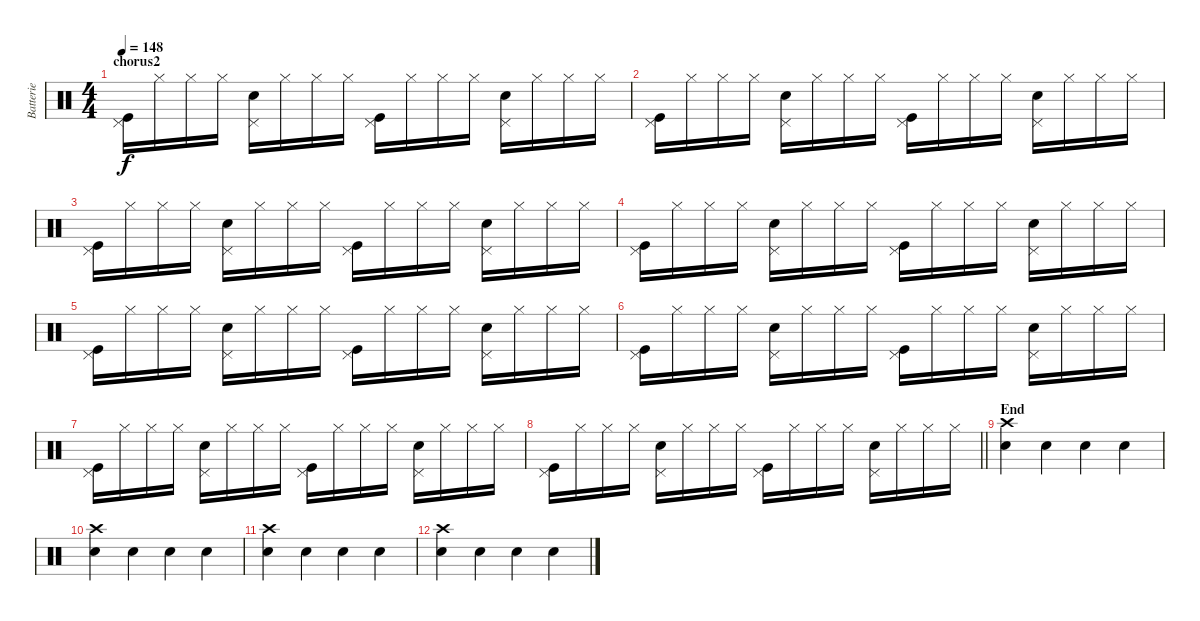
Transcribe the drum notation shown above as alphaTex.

\track ("Batterie" "Batterie") {instrument percussion}
\staff {score}
\articulation defaults
\ts (4 4)
\section ("" "chorus2")
\tempo 148
\clef neutral
\ks c
("Pedal Hi-Hat (hit)" "Kick (hit)").16{dy f} "Hi-Hat (closed)".16 "Hi-Hat (closed)".16 "Hi-Hat (closed)".16 ("Pedal Hi-Hat (hit)" "Electric Snare (hit)").16 "Hi-Hat (closed)".16 "Hi-Hat (closed)".16 "Hi-Hat (closed)".16 ("Pedal Hi-Hat (hit)" "Kick (hit)").16 "Hi-Hat (closed)".16 "Hi-Hat (closed)".16 "Hi-Hat (closed)".16 ("Pedal Hi-Hat (hit)" "Electric Snare (hit)").16 "Hi-Hat (closed)".16 "Hi-Hat (closed)".16 "Hi-Hat (closed)".16 |
("Pedal Hi-Hat (hit)" "Kick (hit)").16 "Hi-Hat (closed)".16 "Hi-Hat (closed)".16 "Hi-Hat (closed)".16 ("Pedal Hi-Hat (hit)" "Electric Snare (hit)").16 "Hi-Hat (closed)".16 "Hi-Hat (closed)".16 "Hi-Hat (closed)".16 ("Pedal Hi-Hat (hit)" "Kick (hit)").16 "Hi-Hat (closed)".16 "Hi-Hat (closed)".16 "Hi-Hat (closed)".16 ("Pedal Hi-Hat (hit)" "Electric Snare (hit)").16 "Hi-Hat (closed)".16 "Hi-Hat (closed)".16 "Hi-Hat (closed)".16 |
("Pedal Hi-Hat (hit)" "Kick (hit)").16 "Hi-Hat (closed)".16 "Hi-Hat (closed)".16 "Hi-Hat (closed)".16 ("Pedal Hi-Hat (hit)" "Electric Snare (hit)").16 "Hi-Hat (closed)".16 "Hi-Hat (closed)".16 "Hi-Hat (closed)".16 ("Pedal Hi-Hat (hit)" "Kick (hit)").16 "Hi-Hat (closed)".16 "Hi-Hat (closed)".16 "Hi-Hat (closed)".16 ("Pedal Hi-Hat (hit)" "Electric Snare (hit)").16 "Hi-Hat (closed)".16 "Hi-Hat (closed)".16 "Hi-Hat (closed)".16 |
("Pedal Hi-Hat (hit)" "Kick (hit)").16 "Hi-Hat (closed)".16 "Hi-Hat (closed)".16 "Hi-Hat (closed)".16 ("Pedal Hi-Hat (hit)" "Electric Snare (hit)").16 "Hi-Hat (closed)".16 "Hi-Hat (closed)".16 "Hi-Hat (closed)".16 ("Pedal Hi-Hat (hit)" "Kick (hit)").16 "Hi-Hat (closed)".16 "Hi-Hat (closed)".16 "Hi-Hat (closed)".16 ("Pedal Hi-Hat (hit)" "Electric Snare (hit)").16 "Hi-Hat (closed)".16 "Hi-Hat (closed)".16 "Hi-Hat (closed)".16 |
("Pedal Hi-Hat (hit)" "Kick (hit)").16 "Hi-Hat (closed)".16 "Hi-Hat (closed)".16 "Hi-Hat (closed)".16 ("Pedal Hi-Hat (hit)" "Electric Snare (hit)").16 "Hi-Hat (closed)".16 "Hi-Hat (closed)".16 "Hi-Hat (closed)".16 ("Pedal Hi-Hat (hit)" "Kick (hit)").16 "Hi-Hat (closed)".16 "Hi-Hat (closed)".16 "Hi-Hat (closed)".16 ("Pedal Hi-Hat (hit)" "Electric Snare (hit)").16 "Hi-Hat (closed)".16 "Hi-Hat (closed)".16 "Hi-Hat (closed)".16 |
("Pedal Hi-Hat (hit)" "Kick (hit)").16 "Hi-Hat (closed)".16 "Hi-Hat (closed)".16 "Hi-Hat (closed)".16 ("Pedal Hi-Hat (hit)" "Electric Snare (hit)").16 "Hi-Hat (closed)".16 "Hi-Hat (closed)".16 "Hi-Hat (closed)".16 ("Pedal Hi-Hat (hit)" "Kick (hit)").16 "Hi-Hat (closed)".16 "Hi-Hat (closed)".16 "Hi-Hat (closed)".16 ("Pedal Hi-Hat (hit)" "Electric Snare (hit)").16 "Hi-Hat (closed)".16 "Hi-Hat (closed)".16 "Hi-Hat (closed)".16 |
("Pedal Hi-Hat (hit)" "Kick (hit)").16 "Hi-Hat (closed)".16 "Hi-Hat (closed)".16 "Hi-Hat (closed)".16 ("Pedal Hi-Hat (hit)" "Electric Snare (hit)").16 "Hi-Hat (closed)".16 "Hi-Hat (closed)".16 "Hi-Hat (closed)".16 ("Pedal Hi-Hat (hit)" "Kick (hit)").16 "Hi-Hat (closed)".16 "Hi-Hat (closed)".16 "Hi-Hat (closed)".16 ("Pedal Hi-Hat (hit)" "Electric Snare (hit)").16 "Hi-Hat (closed)".16 "Hi-Hat (closed)".16 "Hi-Hat (closed)".16 |
\barLineRight lightlight
("Pedal Hi-Hat (hit)" "Kick (hit)").16 "Hi-Hat (closed)".16 "Hi-Hat (closed)".16 "Hi-Hat (closed)".16 ("Pedal Hi-Hat (hit)" "Electric Snare (hit)").16 "Hi-Hat (closed)".16 "Hi-Hat (closed)".16 "Hi-Hat (closed)".16 ("Pedal Hi-Hat (hit)" "Kick (hit)").16 "Hi-Hat (closed)".16 "Hi-Hat (closed)".16 "Hi-Hat (closed)".16 ("Pedal Hi-Hat (hit)" "Electric Snare (hit)").16 "Hi-Hat (closed)".16 "Hi-Hat (closed)".16 "Hi-Hat (closed)".16 |
\section ("" "End")
("Crash high (hit)" "Electric Snare (hit)").4 "Electric Snare (hit)".4 "Electric Snare (hit)".4 "Electric Snare (hit)".4 |
("Crash high (hit)" "Electric Snare (hit)").4 "Electric Snare (hit)".4 "Electric Snare (hit)".4 "Electric Snare (hit)".4 |
("Crash high (hit)" "Electric Snare (hit)").4 "Electric Snare (hit)".4 "Electric Snare (hit)".4 "Electric Snare (hit)".4 |
("Crash high (hit)" "Electric Snare (hit)").4 "Electric Snare (hit)".4 "Electric Snare (hit)".4 "Electric Snare (hit)".4
